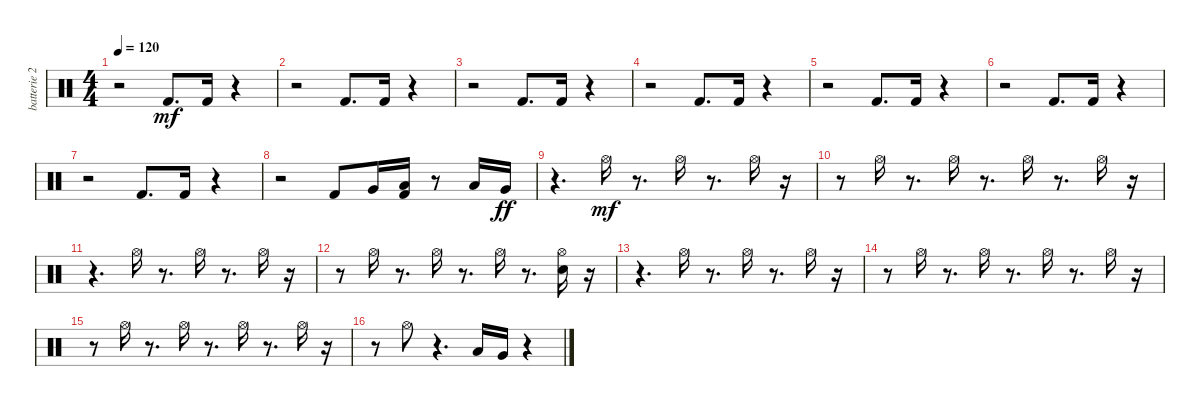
\track ("batterie 2" "batterie 2") {instrument percussion}
\staff {score}
\articulation defaults
\ts (4 4)
\tempo 120
\clef neutral
\ks c
r.2{dy ff} "Kick (hit) 2".8{d dy mf} "Kick (hit) 2".16 r.4 |
r.2 "Kick (hit) 2".8{d} "Kick (hit) 2".16 r.4 |
r.2 "Kick (hit) 2".8{d} "Kick (hit) 2".16 r.4 |
r.2 "Kick (hit) 2".8{d} "Kick (hit) 2".16 r.4 |
r.2 "Kick (hit) 2".8{d} "Kick (hit) 2".16 r.4 |
r.2 "Kick (hit) 2".8{d} "Kick (hit) 2".16 r.4 |
r.2 "Kick (hit) 2".8{d} "Kick (hit) 2".16 r.4 |
r.2 "Kick (hit) 2".8 "Very Low Tom (hit)".16 ("Kick (hit) 2" "Low Floor Tom (hit)").16 r.8 "Low Tom (hit)".16 "Very Low Tom (hit)".16{dy ff} |
r.4{d} "Hi-Hat (open)".16{dy mf} r.8{d} "Hi-Hat (open)".16 r.8{d} "Hi-Hat (open)".16 r.16 |
r.8 "Hi-Hat (open)".16 r.8{d} "Hi-Hat (open)".16 r.8{d} "Hi-Hat (open)".16 r.8{d} "Hi-Hat (open)".16 r.16 |
r.4{d} "Hi-Hat (open)".16 r.8{d} "Hi-Hat (open)".16 r.8{d} "Hi-Hat (open)".16 r.16 |
r.8 "Hi-Hat (open)".16 r.8{d} "Hi-Hat (open)".16 r.8{d} "Hi-Hat (open)".16 r.8{d} ("Electric Snare (hit)" "Hi-Hat (open)").16 r.16 |
r.4{d} "Hi-Hat (open)".16 r.8{d} "Hi-Hat (open)".16 r.8{d} "Hi-Hat (open)".16 r.16 |
r.8 "Hi-Hat (open)".16 r.8{d} "Hi-Hat (open)".16 r.8{d} "Hi-Hat (open)".16 r.8{d} "Hi-Hat (open)".16 r.16 |
r.8 "Hi-Hat (open)".16 r.8{d} "Hi-Hat (open)".16 r.8{d} "Hi-Hat (open)".16 r.8{d} "Hi-Hat (open)".16 r.16 |
r.8 "Hi-Hat (open)".8 r.4{d} "Low Tom (hit)".16 "Very Low Tom (hit)".16 r.4
